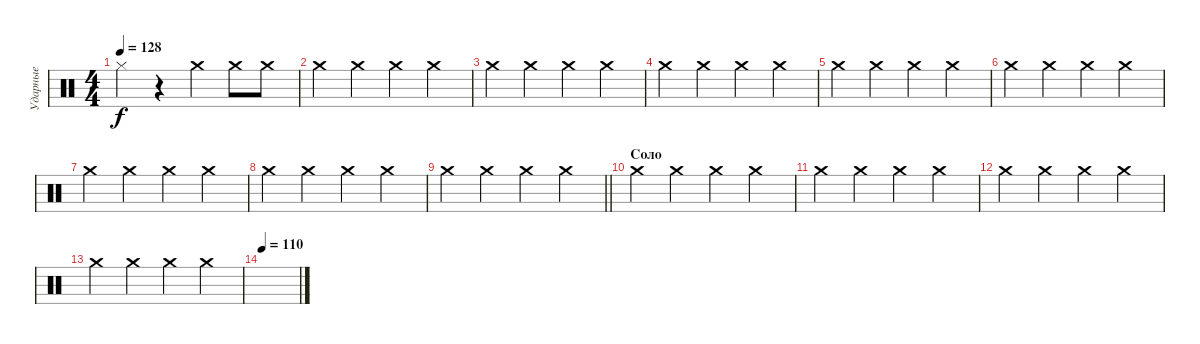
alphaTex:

\track ("Ударные" "Ударные") {instrument percussion}
\staff {score}
\articulation defaults
\ts (4 4)
\tempo 128
\clef neutral
\ks c "Hi-Hat (closed)".4{dy f}
r.4 "Crash medium (hit)".4 "Crash medium (hit)".8 "Crash medium (hit)".8 |
"Crash medium (hit)".4 "Crash medium (hit)".4 "Crash medium (hit)".4 "Crash medium (hit)".4 |
"Crash medium (hit)".4 "Crash medium (hit)".4 "Crash medium (hit)".4 "Crash medium (hit)".4 |
"Crash medium (hit)".4 "Crash medium (hit)".4 "Crash medium (hit)".4 "Crash medium (hit)".4 |
"Crash medium (hit)".4 "Crash medium (hit)".4 "Crash medium (hit)".4 "Crash medium (hit)".4 |
"Crash medium (hit)".4 "Crash medium (hit)".4 "Crash medium (hit)".4 "Crash medium (hit)".4 |
"Crash medium (hit)".4 "Crash medium (hit)".4 "Crash medium (hit)".4 "Crash medium (hit)".4 |
"Crash medium (hit)".4 "Crash medium (hit)".4 "Crash medium (hit)".4 "Crash medium (hit)".4 |
\barLineRight lightlight "Crash medium (hit)".4 "Crash medium (hit)".4 "Crash medium (hit)".4 "Crash medium (hit)".4
|
\section ("" "Соло")
"Crash medium (hit)".4 "Crash medium (hit)".4 "Crash medium (hit)".4 "Crash medium (hit)".4 |
"Crash medium (hit)".4 "Crash medium (hit)".4 "Crash medium (hit)".4 "Crash medium (hit)".4 |
"Crash medium (hit)".4 "Crash medium (hit)".4 "Crash medium (hit)".4 "Crash medium (hit)".4 |
"Crash medium (hit)".4 "Crash medium (hit)".4 "Crash medium (hit)".4 "Crash medium (hit)".4 |
\tempo 110
